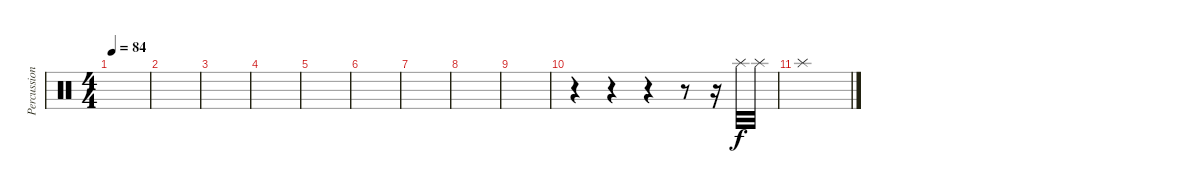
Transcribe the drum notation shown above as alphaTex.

\track ("Percussion" "Percussion") {instrument percussion}
\staff {score}
\articulation defaults
\ts (4 4)
\tempo 84
\clef neutral
\ks c
|
|
|
|
|
|
|
|
|
r.4 r.4 r.4 r.8 r.16 "Splash (hit)".32 "Splash (hit)".32 |
"Splash (hit)".1
